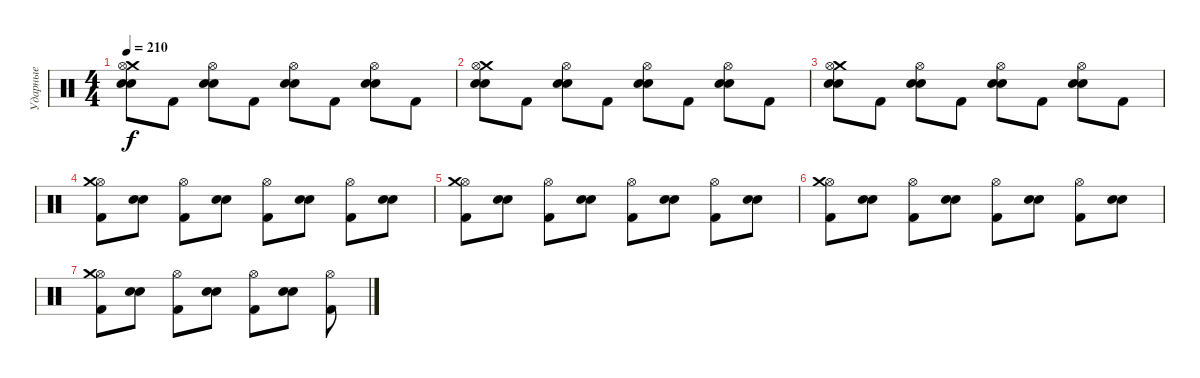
\track ("Ударные" "Ударные") {instrument percussion}
\staff {score}
\articulation defaults
\ts (4 4)
\tempo 210
\clef neutral
\ks c
("Crash medium (hit)" "Hi-Hat (open)" "Snare (hit) 2" "Electric Snare (hit)").8{dy f} "Kick (hit) 2".8 ("Hi-Hat (open)" "Snare (hit) 2" "Electric Snare (hit)").8 "Kick (hit) 2".8 ("Hi-Hat (open)" "Snare (hit) 2" "Electric Snare (hit)").8 "Kick (hit) 2".8 ("Hi-Hat (open)" "Snare (hit) 2" "Electric Snare (hit)").8 "Kick (hit) 2".8 |
("Crash medium (hit)" "Hi-Hat (open)" "Snare (hit) 2" "Electric Snare (hit)").8 "Kick (hit) 2".8 ("Hi-Hat (open)" "Snare (hit) 2" "Electric Snare (hit)").8 "Kick (hit) 2".8 ("Hi-Hat (open)" "Snare (hit) 2" "Electric Snare (hit)").8 "Kick (hit) 2".8 ("Hi-Hat (open)" "Snare (hit) 2" "Electric Snare (hit)").8 "Kick (hit) 2".8 |
("Crash medium (hit)" "Hi-Hat (open)" "Snare (hit) 2" "Electric Snare (hit)").8 "Kick (hit) 2".8 ("Hi-Hat (open)" "Snare (hit) 2" "Electric Snare (hit)").8 "Kick (hit) 2".8 ("Hi-Hat (open)" "Snare (hit) 2" "Electric Snare (hit)").8 "Kick (hit) 2".8 ("Hi-Hat (open)" "Snare (hit) 2" "Electric Snare (hit)").8 "Kick (hit) 2".8 |
("Hi-Hat (open)" "Crash medium (hit)" "Kick (hit) 2").8 ("Electric Snare (hit)" "Snare (hit) 2").8 ("Hi-Hat (open)" "Kick (hit) 2").8 ("Electric Snare (hit)" "Snare (hit) 2").8 ("Hi-Hat (open)" "Kick (hit) 2").8 ("Electric Snare (hit)" "Snare (hit) 2").8 ("Hi-Hat (open)" "Kick (hit) 2").8 ("Snare (hit) 2" "Electric Snare (hit)").8 |
("Hi-Hat (open)" "Crash medium (hit)" "Kick (hit) 2").8 ("Electric Snare (hit)" "Snare (hit) 2").8 ("Hi-Hat (open)" "Kick (hit) 2").8 ("Electric Snare (hit)" "Snare (hit) 2").8 ("Hi-Hat (open)" "Kick (hit) 2").8 ("Electric Snare (hit)" "Snare (hit) 2").8 ("Hi-Hat (open)" "Kick (hit) 2").8 ("Snare (hit) 2" "Electric Snare (hit)").8 |
("Hi-Hat (open)" "Crash medium (hit)" "Kick (hit) 2").8 ("Electric Snare (hit)" "Snare (hit) 2").8 ("Hi-Hat (open)" "Kick (hit) 2").8 ("Electric Snare (hit)" "Snare (hit) 2").8 ("Hi-Hat (open)" "Kick (hit) 2").8 ("Electric Snare (hit)" "Snare (hit) 2").8 ("Hi-Hat (open)" "Kick (hit) 2").8 ("Snare (hit) 2" "Electric Snare (hit)").8 |
("Hi-Hat (open)" "Crash medium (hit)" "Kick (hit) 2").8 ("Electric Snare (hit)" "Snare (hit) 2").8 ("Hi-Hat (open)" "Kick (hit) 2").8 ("Electric Snare (hit)" "Snare (hit) 2").8 ("Hi-Hat (open)" "Kick (hit) 2").8 ("Electric Snare (hit)" "Snare (hit) 2").8 ("Hi-Hat (open)" "Kick (hit) 2").8
